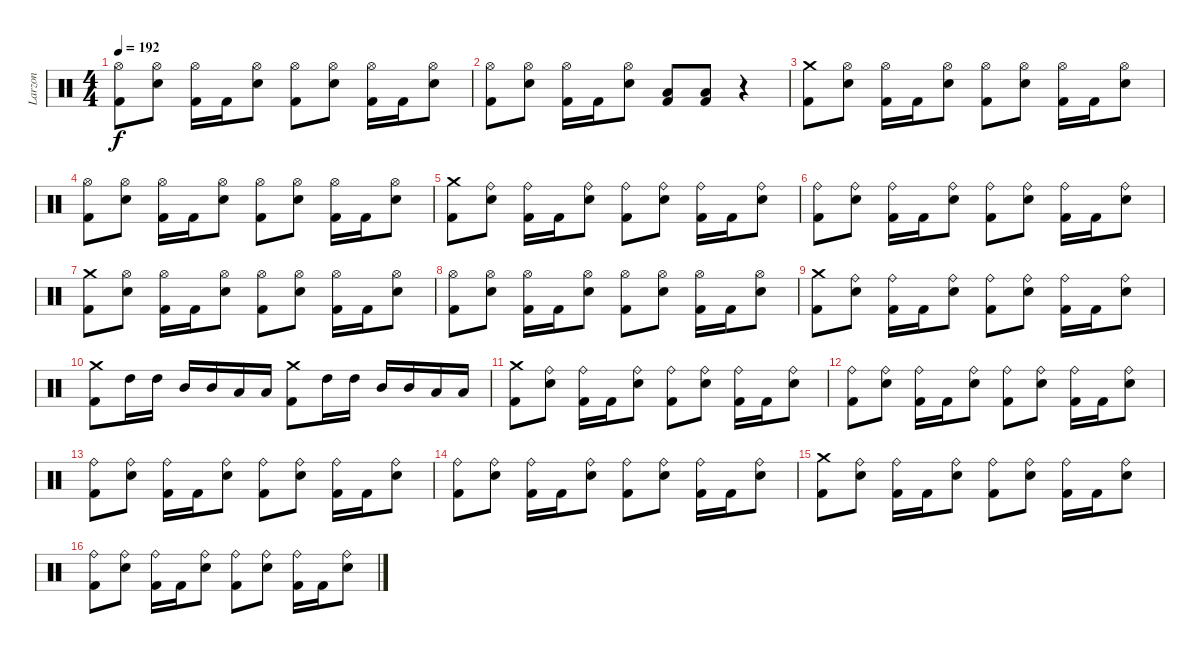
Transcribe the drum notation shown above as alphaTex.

\track ("Larzon" "Larzon") {instrument percussion}
\staff {score}
\articulation defaults
\ts (4 4)
\tempo 192
\clef neutral
\ks c
("Hi-Hat (open)" "Kick (hit) 2").8{dy f} ("Hi-Hat (open)" "Electric Snare (hit)").8 ("Hi-Hat (open)" "Kick (hit) 2").16 "Kick (hit) 2".16 ("Hi-Hat (open)" "Electric Snare (hit)").8 ("Hi-Hat (open)" "Kick (hit) 2").8 ("Hi-Hat (open)" "Electric Snare (hit)").8 ("Hi-Hat (open)" "Kick (hit) 2").16 "Kick (hit) 2".16 ("Hi-Hat (open)" "Electric Snare (hit)").8 |
("Hi-Hat (open)" "Kick (hit) 2").8 ("Hi-Hat (open)" "Electric Snare (hit)").8 ("Hi-Hat (open)" "Kick (hit) 2").16 "Kick (hit) 2".16 ("Hi-Hat (open)" "Electric Snare (hit)").8 ("Low Tom (hit)" "Kick (hit) 2").8 ("Low Tom (hit)" "Kick (hit) 2").8 r.4 |
("Crash medium (hit)" "Kick (hit) 2").8 ("Hi-Hat (open)" "Electric Snare (hit)").8 ("Hi-Hat (open)" "Kick (hit) 2").16 "Kick (hit) 2".16 ("Hi-Hat (open)" "Electric Snare (hit)").8 ("Hi-Hat (open)" "Kick (hit) 2").8 ("Hi-Hat (open)" "Electric Snare (hit)").8 ("Hi-Hat (open)" "Kick (hit) 2").16 "Kick (hit) 2".16 ("Hi-Hat (open)" "Electric Snare (hit)").8 |
("Hi-Hat (open)" "Kick (hit) 2").8 ("Hi-Hat (open)" "Electric Snare (hit)").8 ("Hi-Hat (open)" "Kick (hit) 2").16 "Kick (hit) 2".16 ("Hi-Hat (open)" "Electric Snare (hit)").8 ("Hi-Hat (open)" "Kick (hit) 2").8 ("Hi-Hat (open)" "Electric Snare (hit)").8 ("Hi-Hat (open)" "Kick (hit) 2").16 "Kick (hit) 2".16 ("Hi-Hat (open)" "Electric Snare (hit)").8 |
("Crash medium (hit)" "Kick (hit) 2").8 ("Ride (bell)" "Electric Snare (hit)").8 ("Ride (bell)" "Kick (hit) 2").16 "Kick (hit) 2".16 ("Ride (bell)" "Electric Snare (hit)").8 ("Ride (bell)" "Kick (hit) 2").8 ("Ride (bell)" "Electric Snare (hit)").8 ("Ride (bell)" "Kick (hit) 2").16 "Kick (hit) 2".16 ("Ride (bell)" "Electric Snare (hit)").8 |
("Ride (bell)" "Kick (hit) 2").8 ("Ride (bell)" "Electric Snare (hit)").8 ("Ride (bell)" "Kick (hit) 2").16 "Kick (hit) 2".16 ("Ride (bell)" "Electric Snare (hit)").8 ("Ride (bell)" "Kick (hit) 2").8 ("Ride (bell)" "Electric Snare (hit)").8 ("Ride (bell)" "Kick (hit) 2").16 "Kick (hit) 2".16 ("Ride (bell)" "Electric Snare (hit)").8 |
("Crash medium (hit)" "Kick (hit) 2").8 ("Hi-Hat (open)" "Electric Snare (hit)").8 ("Hi-Hat (open)" "Kick (hit) 2").16 "Kick (hit) 2".16 ("Hi-Hat (open)" "Electric Snare (hit)").8 ("Hi-Hat (open)" "Kick (hit) 2").8 ("Hi-Hat (open)" "Electric Snare (hit)").8 ("Hi-Hat (open)" "Kick (hit) 2").16 "Kick (hit) 2".16 ("Hi-Hat (open)" "Electric Snare (hit)").8 |
("Hi-Hat (open)" "Kick (hit) 2").8 ("Hi-Hat (open)" "Electric Snare (hit)").8 ("Hi-Hat (open)" "Kick (hit) 2").16 "Kick (hit) 2".16 ("Hi-Hat (open)" "Electric Snare (hit)").8 ("Hi-Hat (open)" "Kick (hit) 2").8 ("Hi-Hat (open)" "Electric Snare (hit)").8 ("Hi-Hat (open)" "Kick (hit) 2").16 "Kick (hit) 2".16 ("Hi-Hat (open)" "Electric Snare (hit)").8 |
("Crash medium (hit)" "Kick (hit) 2").8 ("Ride (bell)" "Electric Snare (hit)").8 ("Ride (bell)" "Kick (hit) 2").16 "Kick (hit) 2".16 ("Ride (bell)" "Electric Snare (hit)").8 ("Ride (bell)" "Kick (hit) 2").8 ("Ride (bell)" "Electric Snare (hit)").8 ("Ride (bell)" "Kick (hit) 2").16 "Kick (hit) 2".16 ("Ride (bell)" "Electric Snare (hit)").8 |
("Crash medium (hit)" "Kick (hit) 2").8 "High Tom (hit)".16 "High Tom (hit)".16 "Mid Tom (hit)".16 "Mid Tom (hit)".16 "Low Tom (hit)".16 "Low Tom (hit)".16 ("Crash medium (hit)" "Kick (hit) 2").8 "High Tom (hit)".16 "High Tom (hit)".16 "Mid Tom (hit)".16 "Mid Tom (hit)".16 "Low Tom (hit)".16 "Low Tom (hit)".16 |
("Crash medium (hit)" "Kick (hit) 2").8 ("Ride (bell)" "Electric Snare (hit)").8 ("Ride (bell)" "Kick (hit) 2").16 "Kick (hit) 2".16 ("Ride (bell)" "Electric Snare (hit)").8 ("Ride (bell)" "Kick (hit) 2").8 ("Ride (bell)" "Electric Snare (hit)").8 ("Ride (bell)" "Kick (hit) 2").16 "Kick (hit) 2".16 ("Ride (bell)" "Electric Snare (hit)").8 |
("Ride (bell)" "Kick (hit) 2").8 ("Ride (bell)" "Electric Snare (hit)").8 ("Ride (bell)" "Kick (hit) 2").16 "Kick (hit) 2".16 ("Ride (bell)" "Electric Snare (hit)").8 ("Ride (bell)" "Kick (hit) 2").8 ("Ride (bell)" "Electric Snare (hit)").8 ("Ride (bell)" "Kick (hit) 2").16 "Kick (hit) 2".16 ("Ride (bell)" "Electric Snare (hit)").8 |
("Ride (bell)" "Kick (hit) 2").8 ("Ride (bell)" "Electric Snare (hit)").8 ("Ride (bell)" "Kick (hit) 2").16 "Kick (hit) 2".16 ("Ride (bell)" "Electric Snare (hit)").8 ("Ride (bell)" "Kick (hit) 2").8 ("Ride (bell)" "Electric Snare (hit)").8 ("Ride (bell)" "Kick (hit) 2").16 "Kick (hit) 2".16 ("Ride (bell)" "Electric Snare (hit)").8 |
("Ride (bell)" "Kick (hit) 2").8 ("Ride (bell)" "Electric Snare (hit)").8 ("Ride (bell)" "Kick (hit) 2").16 "Kick (hit) 2".16 ("Ride (bell)" "Electric Snare (hit)").8 ("Ride (bell)" "Kick (hit) 2").8 ("Ride (bell)" "Electric Snare (hit)").8 ("Ride (bell)" "Kick (hit) 2").16 "Kick (hit) 2".16 ("Ride (bell)" "Electric Snare (hit)").8 |
("Crash medium (hit)" "Kick (hit) 2").8 ("Ride (bell)" "Electric Snare (hit)").8 ("Ride (bell)" "Kick (hit) 2").16 "Kick (hit) 2".16 ("Ride (bell)" "Electric Snare (hit)").8 ("Ride (bell)" "Kick (hit) 2").8 ("Ride (bell)" "Electric Snare (hit)").8 ("Ride (bell)" "Kick (hit) 2").16 "Kick (hit) 2".16 ("Ride (bell)" "Electric Snare (hit)").8 |
("Ride (bell)" "Kick (hit) 2").8 ("Ride (bell)" "Electric Snare (hit)").8 ("Ride (bell)" "Kick (hit) 2").16 "Kick (hit) 2".16 ("Ride (bell)" "Electric Snare (hit)").8 ("Ride (bell)" "Kick (hit) 2").8 ("Ride (bell)" "Electric Snare (hit)").8 ("Ride (bell)" "Kick (hit) 2").16 "Kick (hit) 2".16 ("Ride (bell)" "Electric Snare (hit)").8
